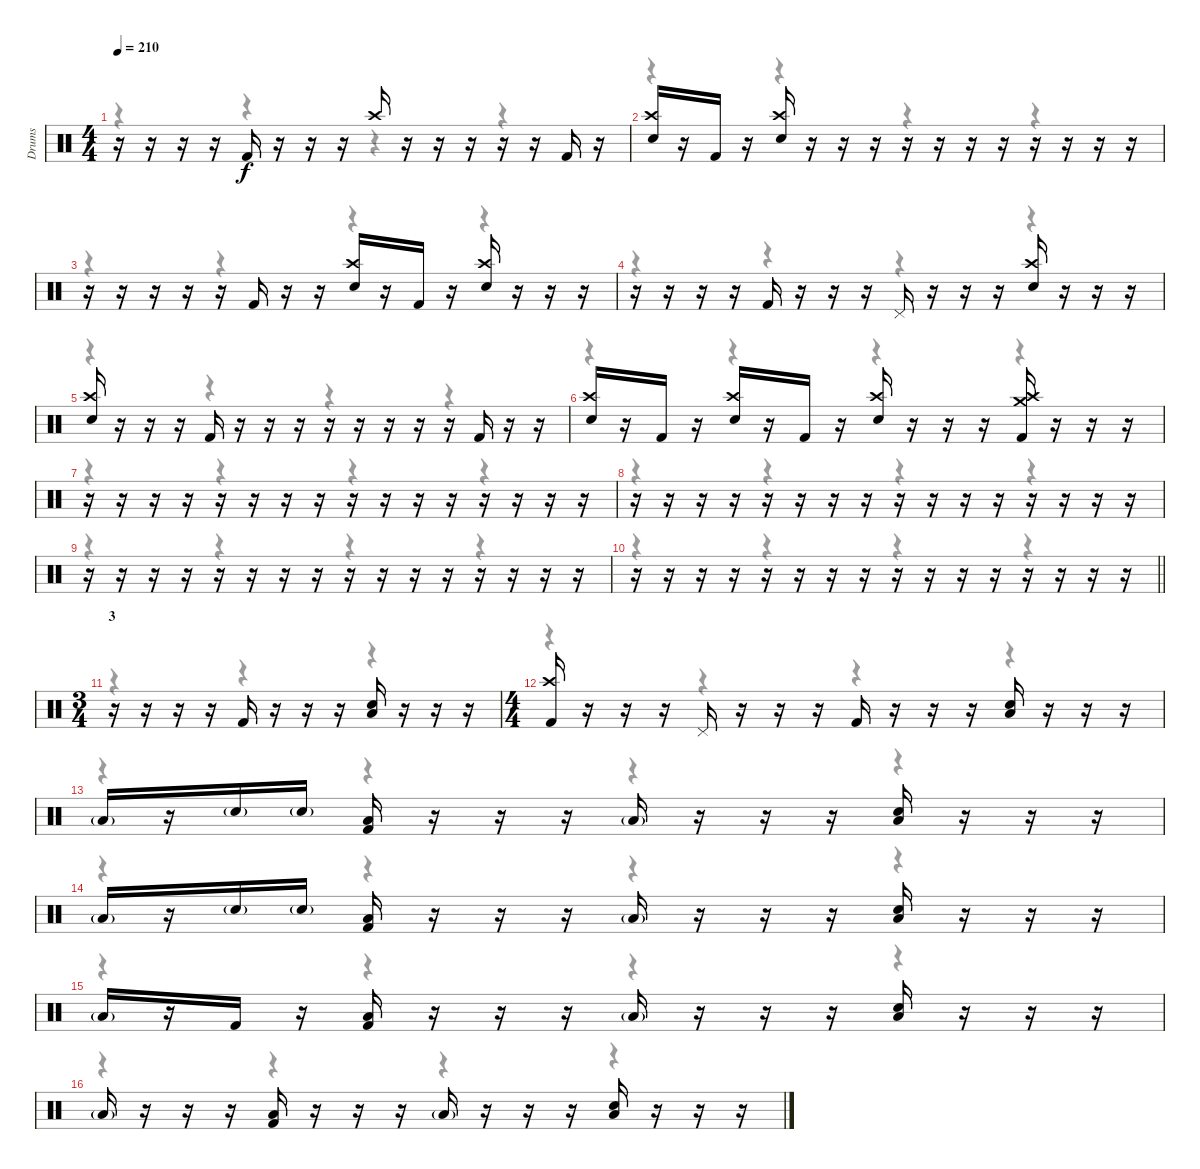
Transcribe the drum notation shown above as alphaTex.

\track ("Drums" "Drums") {instrument percussion}
\staff {score}
\articulation defaults
\voice
\ts (4 4)
\tempo 210
\clef neutral
\ks c
r.16{dy f} r.16 r.16 r.16 "Kick (hit) 2".16 r.16 r.16 r.16 "Crash high (hit)".16 r.16 r.16 r.16 r.16 r.16 "Kick (hit) 2".16 r.16 |
("Snare (hit) 2" "Crash high (hit)").16 r.16 "Kick (hit) 2".16 r.16 ("Snare (hit) 2" "Crash high (hit)").16 r.16 r.16 r.16 r.16 r.16 r.16 r.16 r.16 r.16 r.16 r.16 |
r.16 r.16 r.16 r.16 r.16 "Kick (hit) 2".16 r.16 r.16 ("Snare (hit) 2" "Crash high (hit)").16 r.16 "Kick (hit) 2".16 r.16 ("Snare (hit) 2" "Crash high (hit)").16 r.16 r.16 r.16 |
r.16 r.16 r.16 r.16 "Kick (hit) 2".16 r.16 r.16 r.16 "Pedal Hi-Hat (hit)".16 r.16 r.16 r.16 ("Snare (hit) 2" "Crash high (hit)").16 r.16 r.16 r.16 |
("Snare (hit) 2" "Crash high (hit)").16 r.16 r.16 r.16 "Kick (hit) 2".16 r.16 r.16 r.16 r.16 r.16 r.16 r.16 r.16 "Kick (hit) 2".16 r.16 r.16 |
("Snare (hit) 2" "Crash high (hit)").16 r.16 "Kick (hit) 2".16 r.16 ("Snare (hit) 2" "Crash high (hit)").16 r.16 "Kick (hit) 2".16 r.16 ("Snare (hit) 2" "Crash high (hit)").16 r.16 r.16 r.16 ("Kick (hit) 2" "Crash medium (hit)" "Crash high (hit)").16 r.16 r.16 r.16 |
r.16 r.16 r.16 r.16 r.16 r.16 r.16 r.16 r.16 r.16 r.16 r.16 r.16 r.16 r.16 r.16 |
r.16 r.16 r.16 r.16 r.16 r.16 r.16 r.16 r.16 r.16 r.16 r.16 r.16 r.16 r.16 r.16 |
r.16 r.16 r.16 r.16 r.16 r.16 r.16 r.16 r.16 r.16 r.16 r.16 r.16 r.16 r.16 r.16 |
\barLineRight lightlight
r.16 r.16 r.16 r.16 r.16 r.16 r.16 r.16 r.16 r.16 r.16 r.16 r.16 r.16 r.16 r.16 |
\ts (3 4)
\section ("" "3")
r.16 r.16 r.16 r.16 "Kick (hit) 2".16 r.16 r.16 r.16 ("Snare (hit) 2" "Low Tom (hit)").16 r.16 r.16 r.16 |
\ts (4 4)
("Kick (hit) 2" "Crash high (hit)").16 r.16 r.16 r.16 "Pedal Hi-Hat (hit)".16 r.16 r.16 r.16 "Kick (hit) 2".16 r.16 r.16 r.16 ("Snare (hit) 2" "Low Tom (hit)").16 r.16 r.16 r.16 |
"Low Tom (hit)"{g}.16 r.16 "Snare (hit) 2"{g}.16 "Snare (hit) 2"{g}.16 ("Kick (hit) 2" "Low Tom (hit)").16 r.16 r.16 r.16 "Low Tom (hit)"{g}.16 r.16 r.16 r.16 ("Snare (hit) 2" "Low Tom (hit)").16 r.16 r.16 r.16 |
"Low Tom (hit)"{g}.16 r.16 "Snare (hit) 2"{g}.16 "Snare (hit) 2"{g}.16 ("Kick (hit) 2" "Low Tom (hit)").16 r.16 r.16 r.16 "Low Tom (hit)"{g}.16 r.16 r.16 r.16 ("Snare (hit) 2" "Low Tom (hit)").16 r.16 r.16 r.16 |
"Low Tom (hit)"{g}.16 r.16 "Kick (hit) 2".16 r.16 ("Kick (hit) 2" "Low Tom (hit)").16 r.16 r.16 r.16 "Low Tom (hit)"{g}.16 r.16 r.16 r.16 ("Snare (hit) 2" "Low Tom (hit)").16 r.16 r.16 r.16 |
"Low Tom (hit)"{g}.16 r.16 r.16 r.16 ("Kick (hit) 2" "Low Tom (hit)").16 r.16 r.16 r.16 "Low Tom (hit)"{g}.16 r.16 r.16 r.16 ("Snare (hit) 2" "Low Tom (hit)").16 r.16 r.16 r.16
\voice
\clef neutral
\ottava regular
\simile none
\ks c
r.4{dy mf} r.4 r.4 r.4 |
r.4 r.4 r.4 r.4 |
r.4 r.4 r.4 r.4 |
r.4 r.4 r.4 r.4 |
r.4 r.4 r.4 r.4 |
r.4 r.4 r.4 r.4 |
r.4 r.4 r.4 r.4 |
r.4 r.4 r.4 r.4 |
r.4 r.4 r.4 r.4 |
\barLineRight lightlight
r.4 r.4 r.4 r.4 |
r.4 r.4 r.4 |
r.4 r.4 r.4 r.4 |
r.4 r.4 r.4 r.4 |
r.4 r.4 r.4 r.4 |
r.4 r.4 r.4 r.4 |
r.4 r.4 r.4 r.4
